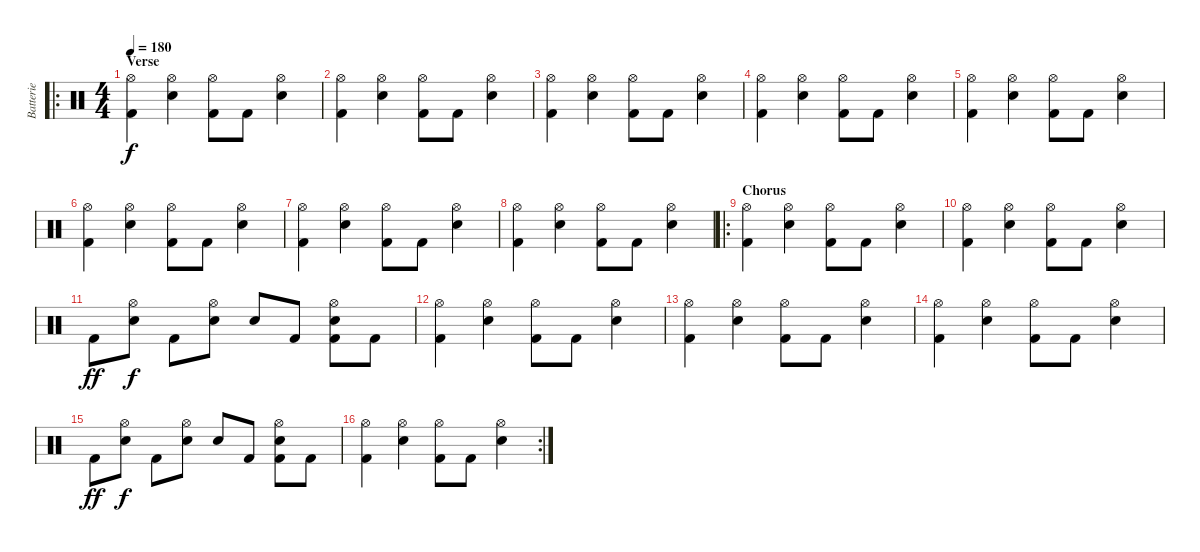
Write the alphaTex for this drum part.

\track ("Batterie" "Batterie") {instrument percussion}
\staff {score}
\articulation defaults
\ro
\ts (4 4)
\section ("" "Verse")
\tempo 180
\clef neutral
\ks c
("Hi-Hat (open)" "Kick (hit) 2").4{dy f} ("Hi-Hat (open)" "Electric Snare (hit)").4 ("Hi-Hat (open)" "Kick (hit) 2").8 "Kick (hit) 2".8 ("Hi-Hat (open)" "Electric Snare (hit)").4 |
("Hi-Hat (open)" "Kick (hit) 2").4 ("Hi-Hat (open)" "Electric Snare (hit)").4 ("Hi-Hat (open)" "Kick (hit) 2").8 "Kick (hit) 2".8 ("Hi-Hat (open)" "Electric Snare (hit)").4 |
("Hi-Hat (open)" "Kick (hit) 2").4 ("Hi-Hat (open)" "Electric Snare (hit)").4 ("Hi-Hat (open)" "Kick (hit) 2").8 "Kick (hit) 2".8 ("Hi-Hat (open)" "Electric Snare (hit)").4 |
("Hi-Hat (open)" "Kick (hit) 2").4 ("Hi-Hat (open)" "Electric Snare (hit)").4 ("Hi-Hat (open)" "Kick (hit) 2").8 "Kick (hit) 2".8 ("Hi-Hat (open)" "Electric Snare (hit)").4 |
("Hi-Hat (open)" "Kick (hit) 2").4 ("Hi-Hat (open)" "Electric Snare (hit)").4 ("Hi-Hat (open)" "Kick (hit) 2").8 "Kick (hit) 2".8 ("Hi-Hat (open)" "Electric Snare (hit)").4 |
("Hi-Hat (open)" "Kick (hit) 2").4 ("Hi-Hat (open)" "Electric Snare (hit)").4 ("Hi-Hat (open)" "Kick (hit) 2").8 "Kick (hit) 2".8 ("Hi-Hat (open)" "Electric Snare (hit)").4 |
("Hi-Hat (open)" "Kick (hit) 2").4 ("Hi-Hat (open)" "Electric Snare (hit)").4 ("Hi-Hat (open)" "Kick (hit) 2").8 "Kick (hit) 2".8 ("Hi-Hat (open)" "Electric Snare (hit)").4 |
("Hi-Hat (open)" "Kick (hit) 2").4 ("Hi-Hat (open)" "Electric Snare (hit)").4 ("Hi-Hat (open)" "Kick (hit) 2").8 "Kick (hit) 2".8 ("Hi-Hat (open)" "Electric Snare (hit)").4 |
\ro
\section ("" "Chorus")
("Hi-Hat (open)" "Kick (hit) 2").4 ("Hi-Hat (open)" "Electric Snare (hit)").4 ("Hi-Hat (open)" "Kick (hit) 2").8 "Kick (hit) 2".8 ("Hi-Hat (open)" "Electric Snare (hit)").4 |
("Hi-Hat (open)" "Kick (hit) 2").4 ("Hi-Hat (open)" "Electric Snare (hit)").4 ("Hi-Hat (open)" "Kick (hit) 2").8 "Kick (hit) 2".8 ("Hi-Hat (open)" "Electric Snare (hit)").4 |
"Kick (hit) 2".8{dy ff} ("Hi-Hat (open)" "Electric Snare (hit)").8{dy f} "Kick (hit) 2".8 ("Hi-Hat (open)" "Electric Snare (hit)").8 "Electric Snare (hit)".8 "Kick (hit) 2".8 ("Hi-Hat (open)" "Electric Snare (hit)" "Kick (hit) 2").8 "Kick (hit) 2".8 |
("Hi-Hat (open)" "Kick (hit) 2").4 ("Hi-Hat (open)" "Electric Snare (hit)").4 ("Hi-Hat (open)" "Kick (hit) 2").8 "Kick (hit) 2".8 ("Hi-Hat (open)" "Electric Snare (hit)").4 |
("Hi-Hat (open)" "Kick (hit) 2").4 ("Hi-Hat (open)" "Electric Snare (hit)").4 ("Hi-Hat (open)" "Kick (hit) 2").8 "Kick (hit) 2".8 ("Hi-Hat (open)" "Electric Snare (hit)").4 |
("Hi-Hat (open)" "Kick (hit) 2").4 ("Hi-Hat (open)" "Electric Snare (hit)").4 ("Hi-Hat (open)" "Kick (hit) 2").8 "Kick (hit) 2".8 ("Hi-Hat (open)" "Electric Snare (hit)").4 |
"Kick (hit) 2".8{dy ff} ("Hi-Hat (open)" "Electric Snare (hit)").8{dy f} "Kick (hit) 2".8 ("Hi-Hat (open)" "Electric Snare (hit)").8 "Electric Snare (hit)".8 "Kick (hit) 2".8 ("Hi-Hat (open)" "Electric Snare (hit)" "Kick (hit) 2").8 "Kick (hit) 2".8 |
\rc 2
("Hi-Hat (open)" "Kick (hit) 2").4 ("Hi-Hat (open)" "Electric Snare (hit)").4 ("Hi-Hat (open)" "Kick (hit) 2").8 "Kick (hit) 2".8 ("Hi-Hat (open)" "Electric Snare (hit)").4
